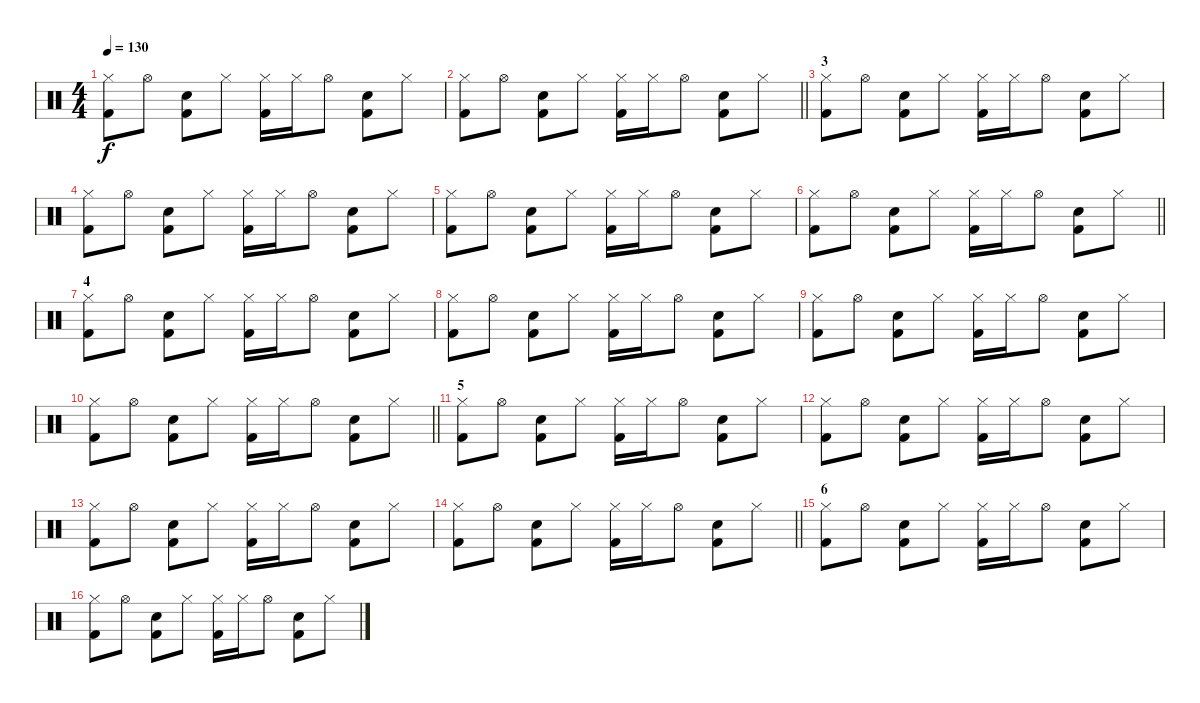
\track "" {instrument percussion}
\staff {score}
\articulation defaults
\ts (4 4)
\tempo 130
\clef neutral
\ks c
("Hi-Hat (closed)" "Kick (hit) 2").8{dy f} "Hi-Hat (open)".8 ("Electric Snare (hit)" "Kick (hit) 2").8 "Hi-Hat (closed)".8 ("Hi-Hat (closed)" "Kick (hit) 2").16 "Hi-Hat (closed)".16 "Hi-Hat (open)".8 ("Electric Snare (hit)" "Kick (hit) 2").8 "Hi-Hat (closed)".8 |
\barLineRight lightlight
("Hi-Hat (closed)" "Kick (hit) 2").8 "Hi-Hat (open)".8 ("Electric Snare (hit)" "Kick (hit) 2").8 "Hi-Hat (closed)".8 ("Hi-Hat (closed)" "Kick (hit) 2").16 "Hi-Hat (closed)".16 "Hi-Hat (open)".8 ("Electric Snare (hit)" "Kick (hit) 2").8 "Hi-Hat (closed)".8 |
\section ("" "3")
("Hi-Hat (closed)" "Kick (hit) 2").8 "Hi-Hat (open)".8 ("Electric Snare (hit)" "Kick (hit) 2").8 "Hi-Hat (closed)".8 ("Hi-Hat (closed)" "Kick (hit) 2").16 "Hi-Hat (closed)".16 "Hi-Hat (open)".8 ("Electric Snare (hit)" "Kick (hit) 2").8 "Hi-Hat (closed)".8 |
("Hi-Hat (closed)" "Kick (hit) 2").8 "Hi-Hat (open)".8 ("Electric Snare (hit)" "Kick (hit) 2").8 "Hi-Hat (closed)".8 ("Hi-Hat (closed)" "Kick (hit) 2").16 "Hi-Hat (closed)".16 "Hi-Hat (open)".8 ("Electric Snare (hit)" "Kick (hit) 2").8 "Hi-Hat (closed)".8 |
("Hi-Hat (closed)" "Kick (hit) 2").8 "Hi-Hat (open)".8 ("Electric Snare (hit)" "Kick (hit) 2").8 "Hi-Hat (closed)".8 ("Hi-Hat (closed)" "Kick (hit) 2").16 "Hi-Hat (closed)".16 "Hi-Hat (open)".8 ("Electric Snare (hit)" "Kick (hit) 2").8 "Hi-Hat (closed)".8 |
\barLineRight lightlight
("Hi-Hat (closed)" "Kick (hit) 2").8 "Hi-Hat (open)".8 ("Electric Snare (hit)" "Kick (hit) 2").8 "Hi-Hat (closed)".8 ("Hi-Hat (closed)" "Kick (hit) 2").16 "Hi-Hat (closed)".16 "Hi-Hat (open)".8 ("Electric Snare (hit)" "Kick (hit) 2").8 "Hi-Hat (closed)".8 |
\section ("" "4")
("Hi-Hat (closed)" "Kick (hit) 2").8 "Hi-Hat (open)".8 ("Electric Snare (hit)" "Kick (hit) 2").8 "Hi-Hat (closed)".8 ("Hi-Hat (closed)" "Kick (hit) 2").16 "Hi-Hat (closed)".16 "Hi-Hat (open)".8 ("Electric Snare (hit)" "Kick (hit) 2").8 "Hi-Hat (closed)".8 |
("Hi-Hat (closed)" "Kick (hit) 2").8 "Hi-Hat (open)".8 ("Electric Snare (hit)" "Kick (hit) 2").8 "Hi-Hat (closed)".8 ("Hi-Hat (closed)" "Kick (hit) 2").16 "Hi-Hat (closed)".16 "Hi-Hat (open)".8 ("Electric Snare (hit)" "Kick (hit) 2").8 "Hi-Hat (closed)".8 |
("Hi-Hat (closed)" "Kick (hit) 2").8 "Hi-Hat (open)".8 ("Electric Snare (hit)" "Kick (hit) 2").8 "Hi-Hat (closed)".8 ("Hi-Hat (closed)" "Kick (hit) 2").16 "Hi-Hat (closed)".16 "Hi-Hat (open)".8 ("Electric Snare (hit)" "Kick (hit) 2").8 "Hi-Hat (closed)".8 |
\barLineRight lightlight
("Hi-Hat (closed)" "Kick (hit) 2").8 "Hi-Hat (open)".8 ("Electric Snare (hit)" "Kick (hit) 2").8 "Hi-Hat (closed)".8 ("Hi-Hat (closed)" "Kick (hit) 2").16 "Hi-Hat (closed)".16 "Hi-Hat (open)".8 ("Electric Snare (hit)" "Kick (hit) 2").8 "Hi-Hat (closed)".8 |
\section ("" "5")
("Hi-Hat (closed)" "Kick (hit) 2").8 "Hi-Hat (open)".8 ("Electric Snare (hit)" "Kick (hit) 2").8 "Hi-Hat (closed)".8 ("Hi-Hat (closed)" "Kick (hit) 2").16 "Hi-Hat (closed)".16 "Hi-Hat (open)".8 ("Electric Snare (hit)" "Kick (hit) 2").8 "Hi-Hat (closed)".8 |
("Hi-Hat (closed)" "Kick (hit) 2").8 "Hi-Hat (open)".8 ("Electric Snare (hit)" "Kick (hit) 2").8 "Hi-Hat (closed)".8 ("Hi-Hat (closed)" "Kick (hit) 2").16 "Hi-Hat (closed)".16 "Hi-Hat (open)".8 ("Electric Snare (hit)" "Kick (hit) 2").8 "Hi-Hat (closed)".8 |
("Hi-Hat (closed)" "Kick (hit) 2").8 "Hi-Hat (open)".8 ("Electric Snare (hit)" "Kick (hit) 2").8 "Hi-Hat (closed)".8 ("Hi-Hat (closed)" "Kick (hit) 2").16 "Hi-Hat (closed)".16 "Hi-Hat (open)".8 ("Electric Snare (hit)" "Kick (hit) 2").8 "Hi-Hat (closed)".8 |
\barLineRight lightlight
("Hi-Hat (closed)" "Kick (hit) 2").8 "Hi-Hat (open)".8 ("Electric Snare (hit)" "Kick (hit) 2").8 "Hi-Hat (closed)".8 ("Hi-Hat (closed)" "Kick (hit) 2").16 "Hi-Hat (closed)".16 "Hi-Hat (open)".8 ("Electric Snare (hit)" "Kick (hit) 2").8 "Hi-Hat (closed)".8 |
\section ("" "6")
("Hi-Hat (closed)" "Kick (hit) 2").8 "Hi-Hat (open)".8 ("Electric Snare (hit)" "Kick (hit) 2").8 "Hi-Hat (closed)".8 ("Hi-Hat (closed)" "Kick (hit) 2").16 "Hi-Hat (closed)".16 "Hi-Hat (open)".8 ("Electric Snare (hit)" "Kick (hit) 2").8 "Hi-Hat (closed)".8 |
("Hi-Hat (closed)" "Kick (hit) 2").8 "Hi-Hat (open)".8 ("Electric Snare (hit)" "Kick (hit) 2").8 "Hi-Hat (closed)".8 ("Hi-Hat (closed)" "Kick (hit) 2").16 "Hi-Hat (closed)".16 "Hi-Hat (open)".8 ("Electric Snare (hit)" "Kick (hit) 2").8 "Hi-Hat (closed)".8
